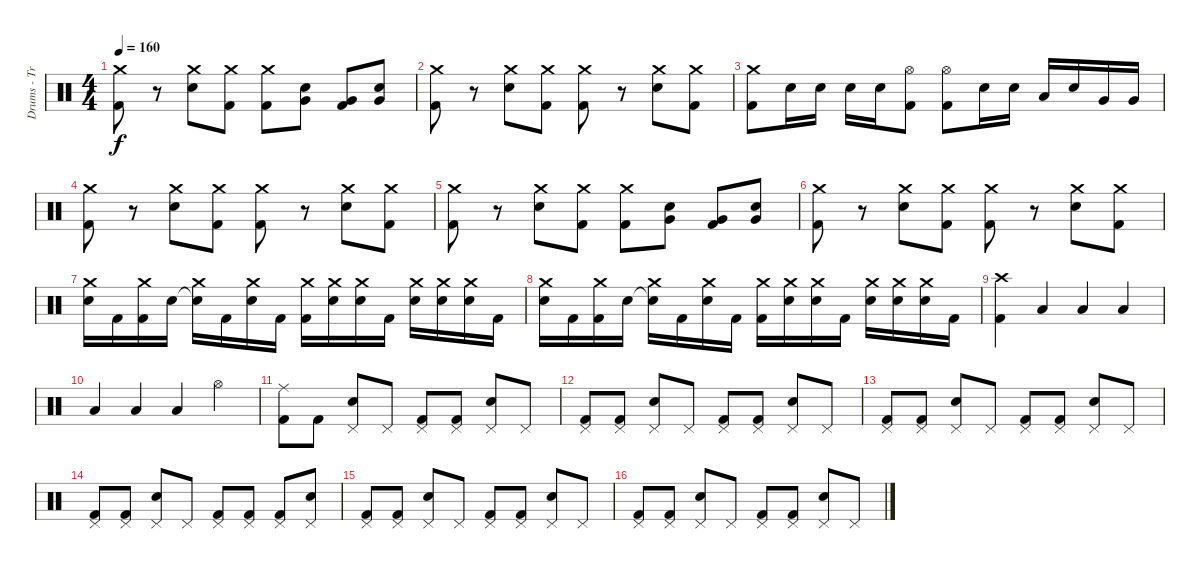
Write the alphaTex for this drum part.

\track ("Drums - Travis Barker" "Drums - Tr") {instrument percussion}
\staff {score}
\articulation defaults
\ts (4 4)
\tempo 160
\clef neutral
\ks c
("Kick (hit) 2" "Crash medium (hit)").8{dy f} r.8 ("Snare (hit) 2" "Crash medium (hit)").8 ("Kick (hit) 2" "Crash medium (hit)").8 ("Kick (hit) 2" "Crash medium (hit)").8 ("Snare (hit) 2" "Very Low Tom (hit)").8 ("Kick (hit) 2" "Very Low Tom (hit)").8 ("Snare (hit) 2" "Very Low Tom (hit)").8 |
("Kick (hit) 2" "Crash medium (hit)").8 r.8 ("Snare (hit) 2" "Crash medium (hit)").8 ("Kick (hit) 2" "Crash medium (hit)").8 ("Kick (hit) 2" "Crash medium (hit)").8 r.8 ("Snare (hit) 2" "Crash medium (hit)").8 ("Kick (hit) 2" "Crash medium (hit)").8 |
("Kick (hit) 2" "Crash medium (hit)").8 "Snare (hit) 2".16 "Snare (hit) 2".16 "Snare (hit) 2".16 "Snare (hit) 2".16 ("Hi-Hat (open)" "Kick (hit) 2").8 ("Hi-Hat (open)" "Kick (hit) 2").8 "Snare (hit) 2".16 "Snare (hit) 2".16 "Low Tom (hit)".16 "Snare (hit) 2".16 "Very Low Tom (hit)".16 "Very Low Tom (hit)".16 |
("Kick (hit) 2" "Crash medium (hit)").8 r.8 ("Snare (hit) 2" "Crash medium (hit)").8 ("Kick (hit) 2" "Crash medium (hit)").8 ("Kick (hit) 2" "Crash medium (hit)").8 r.8 ("Snare (hit) 2" "Crash medium (hit)").8 ("Kick (hit) 2" "Crash medium (hit)").8 |
("Kick (hit) 2" "Crash medium (hit)").8 r.8 ("Snare (hit) 2" "Crash medium (hit)").8 ("Kick (hit) 2" "Crash medium (hit)").8 ("Kick (hit) 2" "Crash medium (hit)").8 ("Snare (hit) 2" "Very Low Tom (hit)").8 ("Kick (hit) 2" "Very Low Tom (hit)").8 ("Snare (hit) 2" "Very Low Tom (hit)").8 |
("Kick (hit) 2" "Crash medium (hit)").8 r.8 ("Snare (hit) 2" "Crash medium (hit)").8 ("Kick (hit) 2" "Crash medium (hit)").8 ("Kick (hit) 2" "Crash medium (hit)").8 r.8 ("Snare (hit) 2" "Crash medium (hit)").8 ("Kick (hit) 2" "Crash medium (hit)").8 |
("Snare (hit) 2" "Crash medium (hit)").16 "Kick (hit) 2".16 ("Kick (hit) 2" "Crash medium (hit)").16 "Snare (hit) 2".16 ("Snare (hit)"{t} "Crash medium (hit)").16 "Kick (hit) 2".16 ("Snare (hit) 2" "Crash medium (hit)").16 "Kick (hit) 2".16 ("Kick (hit) 2" "Crash medium (hit)").16 ("Snare (hit) 2" "Crash medium (hit)").16 ("Snare (hit) 2" "Crash medium (hit)").16 "Kick (hit) 2".16 ("Snare (hit) 2" "Crash medium (hit)").16 ("Snare (hit) 2" "Crash medium (hit)").16 ("Snare (hit) 2" "Crash medium (hit)").16 "Kick (hit) 2".16 |
("Snare (hit) 2" "Crash medium (hit)").16 "Kick (hit) 2".16 ("Kick (hit) 2" "Crash medium (hit)").16 "Snare (hit) 2".16 ("Snare (hit)"{t} "Crash medium (hit)").16 "Kick (hit) 2".16 ("Snare (hit) 2" "Crash medium (hit)").16 "Kick (hit) 2".16 ("Kick (hit) 2" "Crash medium (hit)").16 ("Snare (hit) 2" "Crash medium (hit)").16 ("Snare (hit) 2" "Crash medium (hit)").16 "Kick (hit) 2".16 ("Snare (hit) 2" "Crash medium (hit)").16 ("Snare (hit) 2" "Crash medium (hit)").16 ("Snare (hit) 2" "Crash medium (hit)").16 "Kick (hit) 2".16 |
("Crash high (hit)" "Kick (hit) 2").4 "Low Tom (hit)".4 "Low Tom (hit)".4 "Low Tom (hit)".4 |
"Low Tom (hit)".4 "Low Tom (hit)".4 "Low Tom (hit)".4 "Hi-Hat (open)".4 |
("Ride (middle)" "Kick (hit) 2").8 "Kick (hit) 2".8 ("Pedal Hi-Hat (hit)" "Snare (hit) 2").8 "Pedal Hi-Hat (hit)".8 ("Pedal Hi-Hat (hit)" "Kick (hit) 2").8 ("Pedal Hi-Hat (hit)" "Kick (hit) 2").8 ("Pedal Hi-Hat (hit)" "Snare (hit) 2").8 "Pedal Hi-Hat (hit)".8 |
("Pedal Hi-Hat (hit)" "Kick (hit) 2").8 ("Pedal Hi-Hat (hit)" "Kick (hit) 2").8 ("Pedal Hi-Hat (hit)" "Snare (hit) 2").8 "Pedal Hi-Hat (hit)".8 ("Pedal Hi-Hat (hit)" "Kick (hit) 2").8 ("Pedal Hi-Hat (hit)" "Kick (hit) 2").8 ("Pedal Hi-Hat (hit)" "Snare (hit) 2").8 "Pedal Hi-Hat (hit)".8 |
("Pedal Hi-Hat (hit)" "Kick (hit) 2").8 ("Pedal Hi-Hat (hit)" "Kick (hit) 2").8 ("Pedal Hi-Hat (hit)" "Snare (hit) 2").8 "Pedal Hi-Hat (hit)".8 ("Pedal Hi-Hat (hit)" "Kick (hit) 2").8 ("Pedal Hi-Hat (hit)" "Kick (hit) 2").8 ("Pedal Hi-Hat (hit)" "Snare (hit) 2").8 "Pedal Hi-Hat (hit)".8 |
("Pedal Hi-Hat (hit)" "Kick (hit) 2").8 ("Pedal Hi-Hat (hit)" "Kick (hit) 2").8 ("Pedal Hi-Hat (hit)" "Snare (hit) 2").8 "Pedal Hi-Hat (hit)".8 ("Pedal Hi-Hat (hit)" "Kick (hit) 2").8 ("Pedal Hi-Hat (hit)" "Kick (hit) 2").8 ("Pedal Hi-Hat (hit)" "Kick (hit) 2").8 ("Pedal Hi-Hat (hit)" "Snare (hit) 2").8 |
("Pedal Hi-Hat (hit)" "Kick (hit) 2").8 ("Pedal Hi-Hat (hit)" "Kick (hit) 2").8 ("Pedal Hi-Hat (hit)" "Snare (hit) 2").8 "Pedal Hi-Hat (hit)".8 ("Pedal Hi-Hat (hit)" "Kick (hit) 2").8 ("Pedal Hi-Hat (hit)" "Kick (hit) 2").8 ("Pedal Hi-Hat (hit)" "Snare (hit) 2").8 "Pedal Hi-Hat (hit)".8 |
("Pedal Hi-Hat (hit)" "Kick (hit) 2").8 ("Pedal Hi-Hat (hit)" "Kick (hit) 2").8 ("Pedal Hi-Hat (hit)" "Snare (hit) 2").8 "Pedal Hi-Hat (hit)".8 ("Pedal Hi-Hat (hit)" "Kick (hit) 2").8 ("Pedal Hi-Hat (hit)" "Kick (hit) 2").8 ("Pedal Hi-Hat (hit)" "Snare (hit) 2").8 "Pedal Hi-Hat (hit)".8
